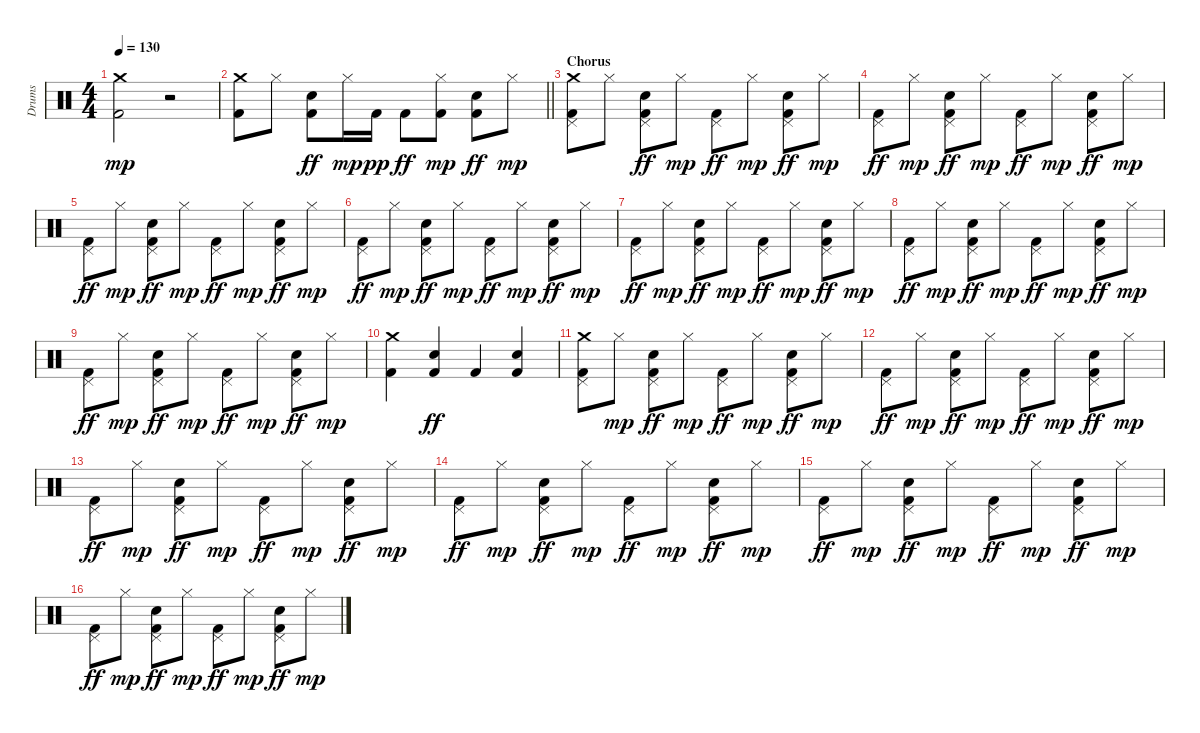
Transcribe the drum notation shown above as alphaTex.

\track ("Drums" "Drums") {instrument percussion}
\staff {score}
\articulation defaults
\ts (4 4)
\tempo 130
\clef neutral
\ks c
("Kick (hit) 2" "Crash medium (hit)").2{dy mp} r.2 |
\barLineRight lightlight
("Kick (hit) 2" "Crash medium (hit)").8 "Hi-Hat (closed)".8 ("Electric Snare (hit)" "Kick (hit) 2").8{dy ff} "Hi-Hat (closed)".16{dy mp} "Kick (hit) 2".16{dy pp} "Kick (hit) 2".8{dy ff} ("Kick (hit) 2" "Hi-Hat (closed)").8{dy mp} ("Electric Snare (hit)" "Kick (hit) 2").8{dy ff} "Hi-Hat (closed)".8{dy mp} |
\section ("" "Chorus")
("Pedal Hi-Hat (hit)" "Kick (hit) 2" "Crash medium (hit)").8 "Hi-Hat (closed)".8 ("Electric Snare (hit)" "Pedal Hi-Hat (hit)" "Kick (hit) 2").8{dy ff} "Hi-Hat (closed)".8{dy mp} ("Pedal Hi-Hat (hit)" "Kick (hit) 2").8{dy ff} "Hi-Hat (closed)".8{dy mp} ("Electric Snare (hit)" "Pedal Hi-Hat (hit)" "Kick (hit) 2").8{dy ff} "Hi-Hat (closed)".8{dy mp} |
("Pedal Hi-Hat (hit)" "Kick (hit) 2").8{dy ff} "Hi-Hat (closed)".8{dy mp} ("Electric Snare (hit)" "Pedal Hi-Hat (hit)" "Kick (hit) 2").8{dy ff} "Hi-Hat (closed)".8{dy mp} ("Pedal Hi-Hat (hit)" "Kick (hit) 2").8{dy ff} "Hi-Hat (closed)".8{dy mp} ("Electric Snare (hit)" "Pedal Hi-Hat (hit)" "Kick (hit) 2").8{dy ff} "Hi-Hat (closed)".8{dy mp} |
("Pedal Hi-Hat (hit)" "Kick (hit) 2").8{dy ff} "Hi-Hat (closed)".8{dy mp} ("Electric Snare (hit)" "Pedal Hi-Hat (hit)" "Kick (hit) 2").8{dy ff} "Hi-Hat (closed)".8{dy mp} ("Pedal Hi-Hat (hit)" "Kick (hit) 2").8{dy ff} "Hi-Hat (closed)".8{dy mp} ("Electric Snare (hit)" "Pedal Hi-Hat (hit)" "Kick (hit) 2").8{dy ff} "Hi-Hat (closed)".8{dy mp} |
("Pedal Hi-Hat (hit)" "Kick (hit) 2").8{dy ff} "Hi-Hat (closed)".8{dy mp} ("Electric Snare (hit)" "Pedal Hi-Hat (hit)" "Kick (hit) 2").8{dy ff} "Hi-Hat (closed)".8{dy mp} ("Pedal Hi-Hat (hit)" "Kick (hit) 2").8{dy ff} "Hi-Hat (closed)".8{dy mp} ("Electric Snare (hit)" "Pedal Hi-Hat (hit)" "Kick (hit) 2").8{dy ff} "Hi-Hat (closed)".8{dy mp} |
("Pedal Hi-Hat (hit)" "Kick (hit) 2").8{dy ff} "Hi-Hat (closed)".8{dy mp} ("Electric Snare (hit)" "Pedal Hi-Hat (hit)" "Kick (hit) 2").8{dy ff} "Hi-Hat (closed)".8{dy mp} ("Pedal Hi-Hat (hit)" "Kick (hit) 2").8{dy ff} "Hi-Hat (closed)".8{dy mp} ("Electric Snare (hit)" "Pedal Hi-Hat (hit)" "Kick (hit) 2").8{dy ff} "Hi-Hat (closed)".8{dy mp} |
("Pedal Hi-Hat (hit)" "Kick (hit) 2").8{dy ff} "Hi-Hat (closed)".8{dy mp} ("Electric Snare (hit)" "Pedal Hi-Hat (hit)" "Kick (hit) 2").8{dy ff} "Hi-Hat (closed)".8{dy mp} ("Pedal Hi-Hat (hit)" "Kick (hit) 2").8{dy ff} "Hi-Hat (closed)".8{dy mp} ("Electric Snare (hit)" "Pedal Hi-Hat (hit)" "Kick (hit) 2").8{dy ff} "Hi-Hat (closed)".8{dy mp} |
("Pedal Hi-Hat (hit)" "Kick (hit) 2").8{dy ff} "Hi-Hat (closed)".8{dy mp} ("Electric Snare (hit)" "Pedal Hi-Hat (hit)" "Kick (hit) 2").8{dy ff} "Hi-Hat (closed)".8{dy mp} ("Pedal Hi-Hat (hit)" "Kick (hit) 2").8{dy ff} "Hi-Hat (closed)".8{dy mp} ("Electric Snare (hit)" "Pedal Hi-Hat (hit)" "Kick (hit) 2").8{dy ff} "Hi-Hat (closed)".8{dy mp} |
("Kick (hit) 2" "Crash medium (hit)").4 ("Electric Snare (hit)" "Kick (hit) 2").4{dy ff} "Kick (hit) 2".4 ("Electric Snare (hit)" "Kick (hit) 2").4 |
("Crash medium (hit)" "Pedal Hi-Hat (hit)" "Kick (hit) 2").8 "Hi-Hat (closed)".8{dy mp} ("Electric Snare (hit)" "Pedal Hi-Hat (hit)" "Kick (hit) 2").8{dy ff} "Hi-Hat (closed)".8{dy mp} ("Pedal Hi-Hat (hit)" "Kick (hit) 2").8{dy ff} "Hi-Hat (closed)".8{dy mp} ("Electric Snare (hit)" "Pedal Hi-Hat (hit)" "Kick (hit) 2").8{dy ff} "Hi-Hat (closed)".8{dy mp} |
("Pedal Hi-Hat (hit)" "Kick (hit) 2").8{dy ff} "Hi-Hat (closed)".8{dy mp} ("Electric Snare (hit)" "Pedal Hi-Hat (hit)" "Kick (hit) 2").8{dy ff} "Hi-Hat (closed)".8{dy mp} ("Pedal Hi-Hat (hit)" "Kick (hit) 2").8{dy ff} "Hi-Hat (closed)".8{dy mp} ("Electric Snare (hit)" "Pedal Hi-Hat (hit)" "Kick (hit) 2").8{dy ff} "Hi-Hat (closed)".8{dy mp} |
("Pedal Hi-Hat (hit)" "Kick (hit) 2").8{dy ff} "Hi-Hat (closed)".8{dy mp} ("Electric Snare (hit)" "Pedal Hi-Hat (hit)" "Kick (hit) 2").8{dy ff} "Hi-Hat (closed)".8{dy mp} ("Pedal Hi-Hat (hit)" "Kick (hit) 2").8{dy ff} "Hi-Hat (closed)".8{dy mp} ("Electric Snare (hit)" "Pedal Hi-Hat (hit)" "Kick (hit) 2").8{dy ff} "Hi-Hat (closed)".8{dy mp} |
("Pedal Hi-Hat (hit)" "Kick (hit) 2").8{dy ff} "Hi-Hat (closed)".8{dy mp} ("Electric Snare (hit)" "Pedal Hi-Hat (hit)" "Kick (hit) 2").8{dy ff} "Hi-Hat (closed)".8{dy mp} ("Pedal Hi-Hat (hit)" "Kick (hit) 2").8{dy ff} "Hi-Hat (closed)".8{dy mp} ("Electric Snare (hit)" "Pedal Hi-Hat (hit)" "Kick (hit) 2").8{dy ff} "Hi-Hat (closed)".8{dy mp} |
("Pedal Hi-Hat (hit)" "Kick (hit) 2").8{dy ff} "Hi-Hat (closed)".8{dy mp} ("Electric Snare (hit)" "Pedal Hi-Hat (hit)" "Kick (hit) 2").8{dy ff} "Hi-Hat (closed)".8{dy mp} ("Pedal Hi-Hat (hit)" "Kick (hit) 2").8{dy ff} "Hi-Hat (closed)".8{dy mp} ("Electric Snare (hit)" "Pedal Hi-Hat (hit)" "Kick (hit) 2").8{dy ff} "Hi-Hat (closed)".8{dy mp} |
("Pedal Hi-Hat (hit)" "Kick (hit) 2").8{dy ff} "Hi-Hat (closed)".8{dy mp} ("Electric Snare (hit)" "Pedal Hi-Hat (hit)" "Kick (hit) 2").8{dy ff} "Hi-Hat (closed)".8{dy mp} ("Pedal Hi-Hat (hit)" "Kick (hit) 2").8{dy ff} "Hi-Hat (closed)".8{dy mp} ("Electric Snare (hit)" "Pedal Hi-Hat (hit)" "Kick (hit) 2").8{dy ff} "Hi-Hat (closed)".8{dy mp}
